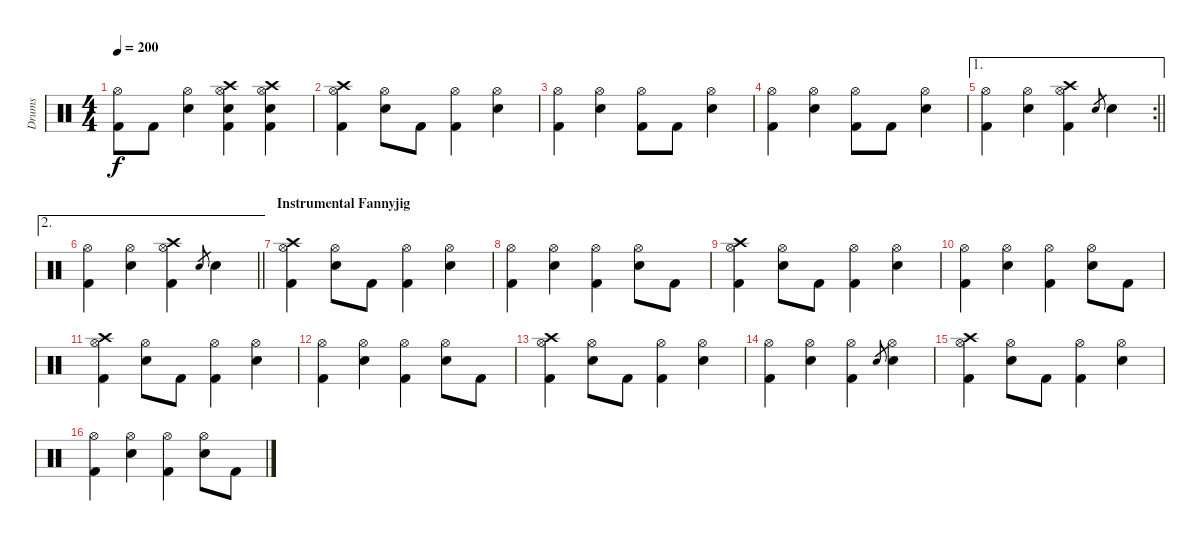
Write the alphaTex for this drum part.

\track ("Drums" "Drums") {instrument percussion}
\staff {score}
\articulation defaults
\ts (4 4)
\tempo 200
\clef neutral
\ks c
("Hi-Hat (open)" "Kick (hit) 2").8{dy f} "Kick (hit) 2".8 ("Hi-Hat (open)" "Snare (hit) 2").4 ("Crash high (hit)" "Hi-Hat (open)" "Snare (hit) 2" "Kick (hit) 2").4 ("Crash high (hit)" "Hi-Hat (open)" "Snare (hit) 2" "Kick (hit) 2").4 |
("Crash high (hit)" "Hi-Hat (open)" "Kick (hit) 2").4 ("Hi-Hat (open)" "Snare (hit) 2").8 "Kick (hit) 2".8 ("Hi-Hat (open)" "Kick (hit) 2").4 ("Hi-Hat (open)" "Snare (hit) 2").4 |
("Hi-Hat (open)" "Kick (hit) 2").4 ("Hi-Hat (open)" "Snare (hit) 2").4 ("Hi-Hat (open)" "Kick (hit) 2").8 "Kick (hit) 2".8 ("Hi-Hat (open)" "Snare (hit) 2").4 |
("Hi-Hat (open)" "Kick (hit) 2").4 ("Hi-Hat (open)" "Snare (hit) 2").4 ("Hi-Hat (open)" "Kick (hit) 2").8 "Kick (hit) 2".8 ("Hi-Hat (open)" "Snare (hit) 2").4 |
\ae 1
\rc 2
\barLineRight lightlight
("Hi-Hat (open)" "Kick (hit) 2").4 ("Hi-Hat (open)" "Snare (hit) 2").4 ("Crash high (hit)" "Hi-Hat (open)" "Kick (hit) 2").4 "Snare (hit) 2".8{gr} "Snare (hit) 2".4 |
\ae 2
\barLineRight lightlight
("Hi-Hat (open)" "Kick (hit) 2").4 ("Hi-Hat (open)" "Snare (hit) 2").4 ("Crash high (hit)" "Hi-Hat (open)" "Kick (hit) 2").4 "Snare (hit) 2".8{gr} "Snare (hit) 2".4 |
\section ("" "Instrumental Fannyjig")
("Crash high (hit)" "Hi-Hat (open)" "Kick (hit) 2").4 ("Hi-Hat (open)" "Snare (hit) 2").8 "Kick (hit) 2".8 ("Hi-Hat (open)" "Kick (hit) 2").4 ("Hi-Hat (open)" "Snare (hit) 2").4 |
("Hi-Hat (open)" "Kick (hit) 2").4 ("Hi-Hat (open)" "Snare (hit) 2").4 ("Hi-Hat (open)" "Kick (hit) 2").4 ("Hi-Hat (open)" "Snare (hit) 2").8 "Kick (hit) 2".8 |
("Crash high (hit)" "Hi-Hat (open)" "Kick (hit) 2").4 ("Hi-Hat (open)" "Snare (hit) 2").8 "Kick (hit) 2".8 ("Hi-Hat (open)" "Kick (hit) 2").4 ("Hi-Hat (open)" "Snare (hit) 2").4 |
("Hi-Hat (open)" "Kick (hit) 2").4 ("Hi-Hat (open)" "Snare (hit) 2").4 ("Hi-Hat (open)" "Kick (hit) 2").4 ("Hi-Hat (open)" "Snare (hit) 2").8 "Kick (hit) 2".8 |
("Crash high (hit)" "Hi-Hat (open)" "Kick (hit) 2").4 ("Hi-Hat (open)" "Snare (hit) 2").8 "Kick (hit) 2".8 ("Hi-Hat (open)" "Kick (hit) 2").4 ("Hi-Hat (open)" "Snare (hit) 2").4 |
("Hi-Hat (open)" "Kick (hit) 2").4 ("Hi-Hat (open)" "Snare (hit) 2").4 ("Hi-Hat (open)" "Kick (hit) 2").4 ("Hi-Hat (open)" "Snare (hit) 2").8 "Kick (hit) 2".8 |
("Crash high (hit)" "Hi-Hat (open)" "Kick (hit) 2").4 ("Hi-Hat (open)" "Snare (hit) 2").8 "Kick (hit) 2".8 ("Hi-Hat (open)" "Kick (hit) 2").4 ("Hi-Hat (open)" "Snare (hit) 2").4 |
("Hi-Hat (open)" "Kick (hit) 2").4 ("Hi-Hat (open)" "Snare (hit) 2").4 ("Hi-Hat (open)" "Kick (hit) 2").4 "Snare (hit) 2".8{gr} ("Hi-Hat (open)" "Snare (hit) 2").4 |
("Crash high (hit)" "Hi-Hat (open)" "Kick (hit) 2").4 ("Hi-Hat (open)" "Snare (hit) 2").8 "Kick (hit) 2".8 ("Hi-Hat (open)" "Kick (hit) 2").4 ("Hi-Hat (open)" "Snare (hit) 2").4 |
("Hi-Hat (open)" "Kick (hit) 2").4 ("Hi-Hat (open)" "Snare (hit) 2").4 ("Hi-Hat (open)" "Kick (hit) 2").4 ("Hi-Hat (open)" "Snare (hit) 2").8 "Kick (hit) 2".8
